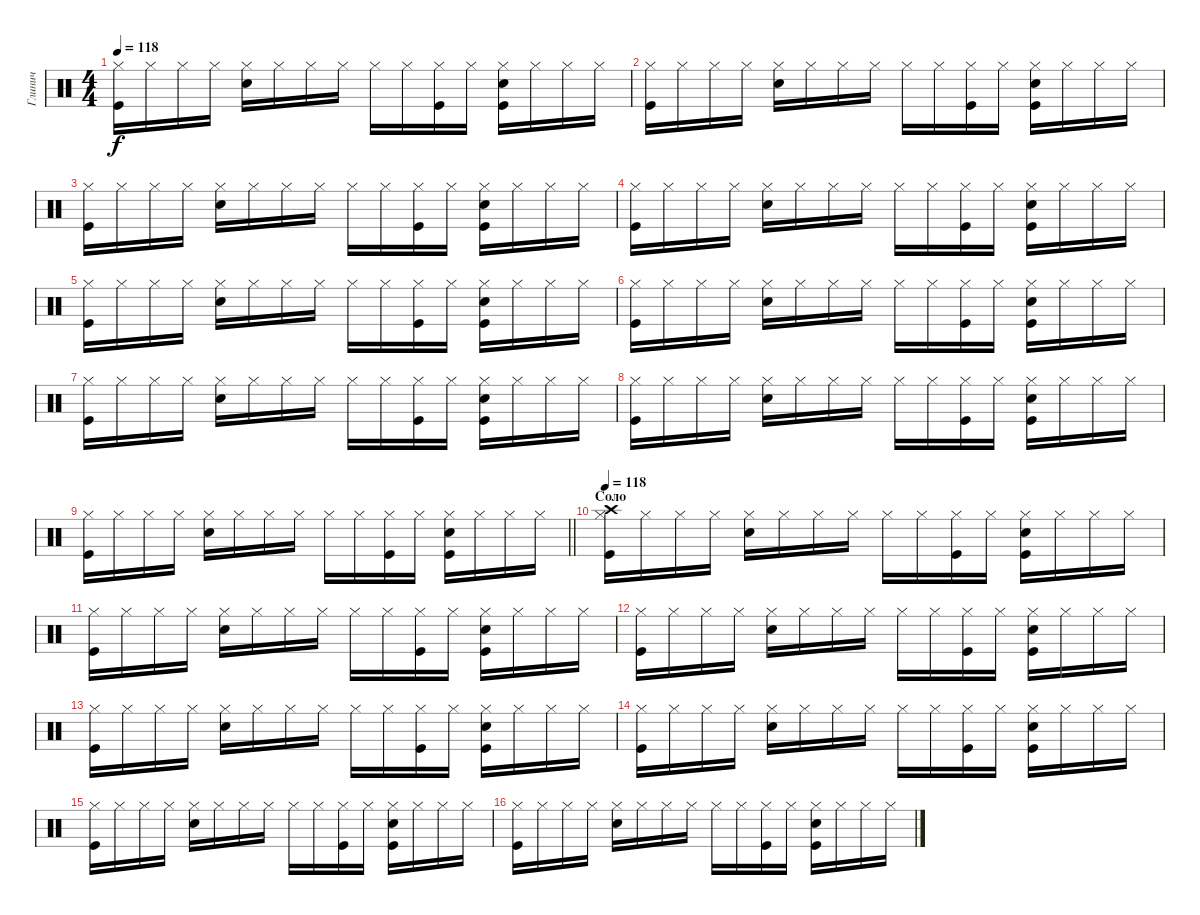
\track ("Глинич" "Глинич") {instrument percussion}
\staff {score}
\articulation defaults
\ts (4 4)
\tempo 118
\clef neutral
\ks c
("Hi-Hat (closed)" "Kick (hit)").16{dy f} "Hi-Hat (closed)".16 "Hi-Hat (closed)".16 "Hi-Hat (closed)".16 ("Hi-Hat (closed)" "Snare (hit) 2").16 "Hi-Hat (closed)".16 "Hi-Hat (closed)".16 "Hi-Hat (closed)".16 "Hi-Hat (closed)".16 "Hi-Hat (closed)".16 ("Hi-Hat (closed)" "Kick (hit)").16 "Hi-Hat (closed)".16 ("Hi-Hat (closed)" "Snare (hit) 2" "Kick (hit)").16 "Hi-Hat (closed)".16 "Hi-Hat (closed)".16 "Hi-Hat (closed)".16 |
("Hi-Hat (closed)" "Kick (hit)").16 "Hi-Hat (closed)".16 "Hi-Hat (closed)".16 "Hi-Hat (closed)".16 ("Hi-Hat (closed)" "Snare (hit) 2").16 "Hi-Hat (closed)".16 "Hi-Hat (closed)".16 "Hi-Hat (closed)".16 "Hi-Hat (closed)".16 "Hi-Hat (closed)".16 ("Hi-Hat (closed)" "Kick (hit)").16 "Hi-Hat (closed)".16 ("Hi-Hat (closed)" "Snare (hit) 2" "Kick (hit)").16 "Hi-Hat (closed)".16 "Hi-Hat (closed)".16 "Hi-Hat (closed)".16 |
("Hi-Hat (closed)" "Kick (hit)").16 "Hi-Hat (closed)".16 "Hi-Hat (closed)".16 "Hi-Hat (closed)".16 ("Hi-Hat (closed)" "Snare (hit) 2").16 "Hi-Hat (closed)".16 "Hi-Hat (closed)".16 "Hi-Hat (closed)".16 "Hi-Hat (closed)".16 "Hi-Hat (closed)".16 ("Hi-Hat (closed)" "Kick (hit)").16 "Hi-Hat (closed)".16 ("Hi-Hat (closed)" "Snare (hit) 2" "Kick (hit)").16 "Hi-Hat (closed)".16 "Hi-Hat (closed)".16 "Hi-Hat (closed)".16 |
("Hi-Hat (closed)" "Kick (hit)").16 "Hi-Hat (closed)".16 "Hi-Hat (closed)".16 "Hi-Hat (closed)".16 ("Hi-Hat (closed)" "Snare (hit) 2").16 "Hi-Hat (closed)".16 "Hi-Hat (closed)".16 "Hi-Hat (closed)".16 "Hi-Hat (closed)".16 "Hi-Hat (closed)".16 ("Hi-Hat (closed)" "Kick (hit)").16 "Hi-Hat (closed)".16 ("Hi-Hat (closed)" "Snare (hit) 2" "Kick (hit)").16 "Hi-Hat (closed)".16 "Hi-Hat (closed)".16 "Hi-Hat (closed)".16 |
("Hi-Hat (closed)" "Kick (hit)").16 "Hi-Hat (closed)".16 "Hi-Hat (closed)".16 "Hi-Hat (closed)".16 ("Hi-Hat (closed)" "Snare (hit) 2").16 "Hi-Hat (closed)".16 "Hi-Hat (closed)".16 "Hi-Hat (closed)".16 "Hi-Hat (closed)".16 "Hi-Hat (closed)".16 ("Hi-Hat (closed)" "Kick (hit)").16 "Hi-Hat (closed)".16 ("Hi-Hat (closed)" "Snare (hit) 2" "Kick (hit)").16 "Hi-Hat (closed)".16 "Hi-Hat (closed)".16 "Hi-Hat (closed)".16 |
("Hi-Hat (closed)" "Kick (hit)").16 "Hi-Hat (closed)".16 "Hi-Hat (closed)".16 "Hi-Hat (closed)".16 ("Hi-Hat (closed)" "Snare (hit) 2").16 "Hi-Hat (closed)".16 "Hi-Hat (closed)".16 "Hi-Hat (closed)".16 "Hi-Hat (closed)".16 "Hi-Hat (closed)".16 ("Hi-Hat (closed)" "Kick (hit)").16 "Hi-Hat (closed)".16 ("Hi-Hat (closed)" "Snare (hit) 2" "Kick (hit)").16 "Hi-Hat (closed)".16 "Hi-Hat (closed)".16 "Hi-Hat (closed)".16 |
("Hi-Hat (closed)" "Kick (hit)").16 "Hi-Hat (closed)".16 "Hi-Hat (closed)".16 "Hi-Hat (closed)".16 ("Hi-Hat (closed)" "Snare (hit) 2").16 "Hi-Hat (closed)".16 "Hi-Hat (closed)".16 "Hi-Hat (closed)".16 "Hi-Hat (closed)".16 "Hi-Hat (closed)".16 ("Hi-Hat (closed)" "Kick (hit)").16 "Hi-Hat (closed)".16 ("Hi-Hat (closed)" "Snare (hit) 2" "Kick (hit)").16 "Hi-Hat (closed)".16 "Hi-Hat (closed)".16 "Hi-Hat (closed)".16 |
("Hi-Hat (closed)" "Kick (hit)").16 "Hi-Hat (closed)".16 "Hi-Hat (closed)".16 "Hi-Hat (closed)".16 ("Hi-Hat (closed)" "Snare (hit) 2").16 "Hi-Hat (closed)".16 "Hi-Hat (closed)".16 "Hi-Hat (closed)".16 "Hi-Hat (closed)".16 "Hi-Hat (closed)".16 ("Hi-Hat (closed)" "Kick (hit)").16 "Hi-Hat (closed)".16 ("Hi-Hat (closed)" "Snare (hit) 2" "Kick (hit)").16 "Hi-Hat (closed)".16 "Hi-Hat (closed)".16 "Hi-Hat (closed)".16 |
\barLineRight lightlight
("Hi-Hat (closed)" "Kick (hit)").16 "Hi-Hat (closed)".16 "Hi-Hat (closed)".16 "Hi-Hat (closed)".16 ("Hi-Hat (closed)" "Snare (hit) 2").16 "Hi-Hat (closed)".16 "Hi-Hat (closed)".16 "Hi-Hat (closed)".16 "Hi-Hat (closed)".16 "Hi-Hat (closed)".16 ("Hi-Hat (closed)" "Kick (hit)").16 "Hi-Hat (closed)".16 ("Hi-Hat (closed)" "Snare (hit) 2" "Kick (hit)").16 "Hi-Hat (closed)".16 "Hi-Hat (closed)".16 "Hi-Hat (closed)".16 |
\section ("" "Соло")
\tempo 118
("Hi-Hat (closed)" "Kick (hit)" "Crash high (hit)").16 "Hi-Hat (closed)".16 "Hi-Hat (closed)".16 "Hi-Hat (closed)".16 ("Hi-Hat (closed)" "Snare (hit) 2").16 "Hi-Hat (closed)".16 "Hi-Hat (closed)".16 "Hi-Hat (closed)".16 "Hi-Hat (closed)".16 "Hi-Hat (closed)".16 ("Hi-Hat (closed)" "Kick (hit)").16 "Hi-Hat (closed)".16 ("Hi-Hat (closed)" "Snare (hit) 2" "Kick (hit)").16 "Hi-Hat (closed)".16 "Hi-Hat (closed)".16 "Hi-Hat (closed)".16 |
("Hi-Hat (closed)" "Kick (hit)").16 "Hi-Hat (closed)".16 "Hi-Hat (closed)".16 "Hi-Hat (closed)".16 ("Hi-Hat (closed)" "Snare (hit) 2").16 "Hi-Hat (closed)".16 "Hi-Hat (closed)".16 "Hi-Hat (closed)".16 "Hi-Hat (closed)".16 "Hi-Hat (closed)".16 ("Hi-Hat (closed)" "Kick (hit)").16 "Hi-Hat (closed)".16 ("Hi-Hat (closed)" "Snare (hit) 2" "Kick (hit)").16 "Hi-Hat (closed)".16 "Hi-Hat (closed)".16 "Hi-Hat (closed)".16 |
("Hi-Hat (closed)" "Kick (hit)").16 "Hi-Hat (closed)".16 "Hi-Hat (closed)".16 "Hi-Hat (closed)".16 ("Hi-Hat (closed)" "Snare (hit) 2").16 "Hi-Hat (closed)".16 "Hi-Hat (closed)".16 "Hi-Hat (closed)".16 "Hi-Hat (closed)".16 "Hi-Hat (closed)".16 ("Hi-Hat (closed)" "Kick (hit)").16 "Hi-Hat (closed)".16 ("Hi-Hat (closed)" "Snare (hit) 2" "Kick (hit)").16 "Hi-Hat (closed)".16 "Hi-Hat (closed)".16 "Hi-Hat (closed)".16 |
("Hi-Hat (closed)" "Kick (hit)").16 "Hi-Hat (closed)".16 "Hi-Hat (closed)".16 "Hi-Hat (closed)".16 ("Hi-Hat (closed)" "Snare (hit) 2").16 "Hi-Hat (closed)".16 "Hi-Hat (closed)".16 "Hi-Hat (closed)".16 "Hi-Hat (closed)".16 "Hi-Hat (closed)".16 ("Hi-Hat (closed)" "Kick (hit)").16 "Hi-Hat (closed)".16 ("Hi-Hat (closed)" "Snare (hit) 2" "Kick (hit)").16 "Hi-Hat (closed)".16 "Hi-Hat (closed)".16 "Hi-Hat (closed)".16 |
("Hi-Hat (closed)" "Kick (hit)").16 "Hi-Hat (closed)".16 "Hi-Hat (closed)".16 "Hi-Hat (closed)".16 ("Hi-Hat (closed)" "Snare (hit) 2").16 "Hi-Hat (closed)".16 "Hi-Hat (closed)".16 "Hi-Hat (closed)".16 "Hi-Hat (closed)".16 "Hi-Hat (closed)".16 ("Hi-Hat (closed)" "Kick (hit)").16 "Hi-Hat (closed)".16 ("Hi-Hat (closed)" "Snare (hit) 2" "Kick (hit)").16 "Hi-Hat (closed)".16 "Hi-Hat (closed)".16 "Hi-Hat (closed)".16 |
("Hi-Hat (closed)" "Kick (hit)").16 "Hi-Hat (closed)".16 "Hi-Hat (closed)".16 "Hi-Hat (closed)".16 ("Hi-Hat (closed)" "Snare (hit) 2").16 "Hi-Hat (closed)".16 "Hi-Hat (closed)".16 "Hi-Hat (closed)".16 "Hi-Hat (closed)".16 "Hi-Hat (closed)".16 ("Hi-Hat (closed)" "Kick (hit)").16 "Hi-Hat (closed)".16 ("Hi-Hat (closed)" "Snare (hit) 2" "Kick (hit)").16 "Hi-Hat (closed)".16 "Hi-Hat (closed)".16 "Hi-Hat (closed)".16 |
("Hi-Hat (closed)" "Kick (hit)").16 "Hi-Hat (closed)".16 "Hi-Hat (closed)".16 "Hi-Hat (closed)".16 ("Hi-Hat (closed)" "Snare (hit) 2").16 "Hi-Hat (closed)".16 "Hi-Hat (closed)".16 "Hi-Hat (closed)".16 "Hi-Hat (closed)".16 "Hi-Hat (closed)".16 ("Hi-Hat (closed)" "Kick (hit)").16 "Hi-Hat (closed)".16 ("Hi-Hat (closed)" "Snare (hit) 2" "Kick (hit)").16 "Hi-Hat (closed)".16 "Hi-Hat (closed)".16 "Hi-Hat (closed)".16
